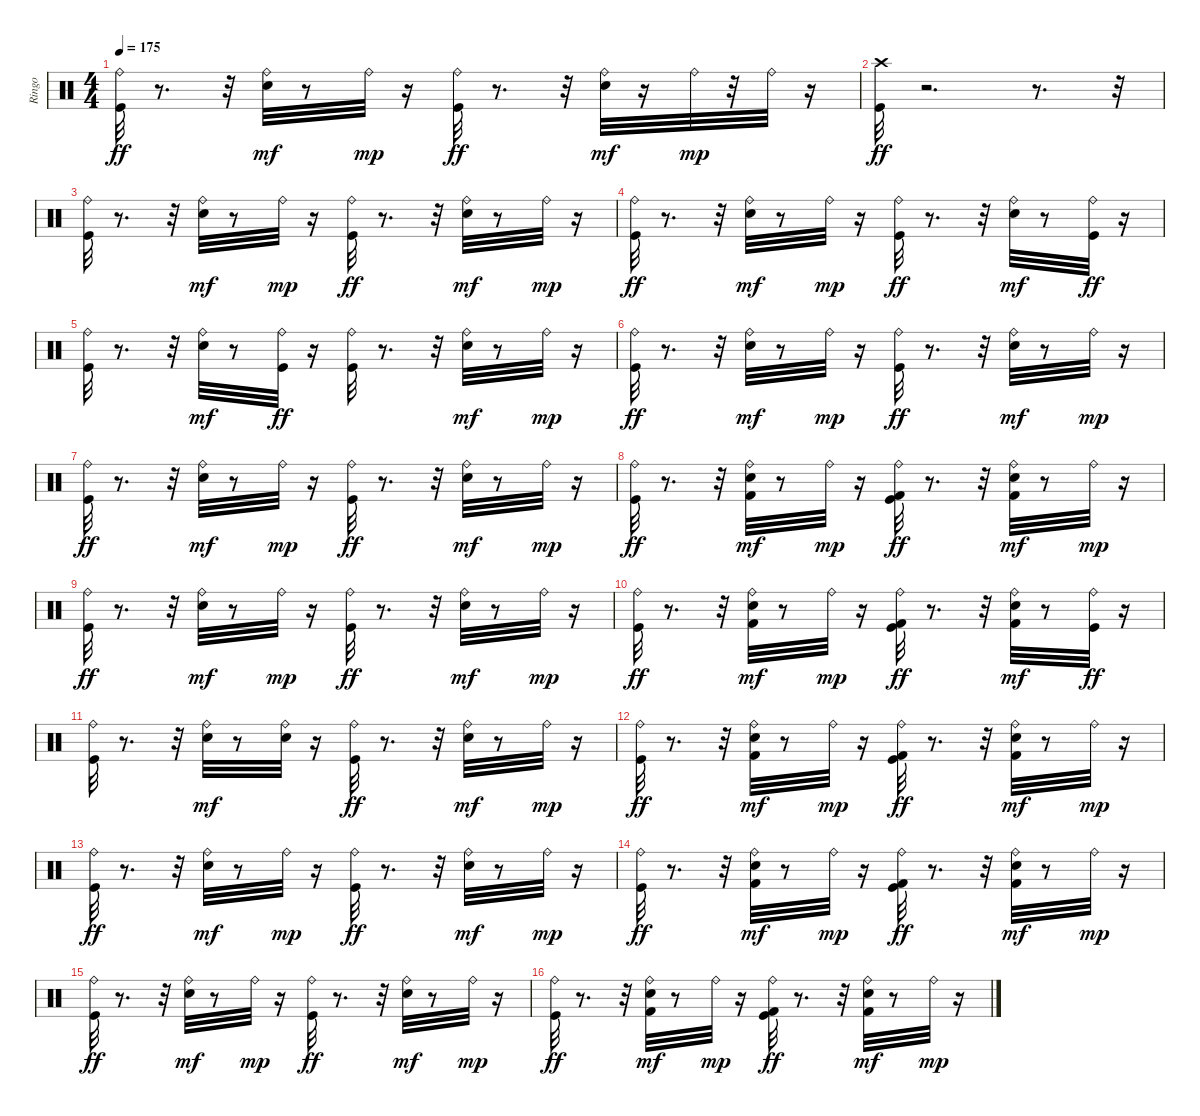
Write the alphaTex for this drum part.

\track ("Ringo" "Ringo") {instrument percussion}
\staff {score}
\articulation defaults
\ts (4 4)
\tempo 175
\clef neutral
\ks c
("Ride (bell)" "Kick (hit)").32{dy ff} r.8{d} r.32 ("Ride (bell)" "Snare (hit) 2").32{dy mf} r.8 "Ride (bell)".32{dy mp} r.16 ("Ride (bell)" "Kick (hit)").32{dy ff} r.8{d} r.32 ("Ride (bell)" "Snare (hit) 2").32{dy mf} r.16 "Ride (bell)".32{dy mp} r.32 "Ride (bell)".32 r.16 |
("Kick (hit)" "Crash high (hit)").32{dy ff} r.2{d} r.8{d} r.32 |
("Ride (bell)" "Kick (hit)").32 r.8{d} r.32 ("Ride (bell)" "Snare (hit) 2").32{dy mf} r.8 "Ride (bell)".32{dy mp} r.16 ("Ride (bell)" "Kick (hit)").32{dy ff} r.8{d} r.32 ("Ride (bell)" "Snare (hit) 2").32{dy mf} r.8 "Ride (bell)".32{dy mp} r.16 |
("Ride (bell)" "Kick (hit)").32{dy ff} r.8{d} r.32 ("Ride (bell)" "Snare (hit) 2").32{dy mf} r.8 "Ride (bell)".32{dy mp} r.16 ("Ride (bell)" "Kick (hit)").32{dy ff} r.8{d} r.32 ("Ride (bell)" "Snare (hit) 2").32{dy mf} r.8 ("Ride (bell)" "Kick (hit)").32{dy ff} r.16 |
("Ride (bell)" "Kick (hit)").32 r.8{d} r.32 ("Ride (bell)" "Snare (hit) 2").32{dy mf} r.8 ("Ride (bell)" "Kick (hit)").32{dy ff} r.16 ("Ride (bell)" "Kick (hit)").32 r.8{d} r.32 ("Ride (bell)" "Snare (hit) 2").32{dy mf} r.8 "Ride (bell)".32{dy mp} r.16 |
("Ride (bell)" "Kick (hit)").32{dy ff} r.8{d} r.32 ("Ride (bell)" "Snare (hit) 2").32{dy mf} r.8 "Ride (bell)".32{dy mp} r.16 ("Ride (bell)" "Kick (hit)").32{dy ff} r.8{d} r.32 ("Ride (bell)" "Snare (hit) 2").32{dy mf} r.8 "Ride (bell)".32{dy mp} r.16 |
("Ride (bell)" "Kick (hit)").32{dy ff} r.8{d} r.32 ("Ride (bell)" "Snare (hit) 2").32{dy mf} r.8 "Ride (bell)".32{dy mp} r.16 ("Ride (bell)" "Kick (hit)").32{dy ff} r.8{d} r.32 ("Ride (bell)" "Snare (hit) 2").32{dy mf} r.8 "Ride (bell)".32{dy mp} r.16 |
("Ride (bell)" "Kick (hit)").32{dy ff} r.8{d} r.32 ("Ride (bell)" "Snare (hit) 2" "Kick (hit) 2").32{dy mf} r.8 "Ride (bell)".32{dy mp} r.16 ("Ride (bell)" "Kick (hit)" "Kick (hit) 2").32{dy ff} r.8{d} r.32 ("Ride (bell)" "Snare (hit) 2" "Kick (hit) 2").32{dy mf} r.8 "Ride (bell)".32{dy mp} r.16 |
("Ride (bell)" "Kick (hit)").32{dy ff} r.8{d} r.32 ("Ride (bell)" "Snare (hit) 2").32{dy mf} r.8 "Ride (bell)".32{dy mp} r.16 ("Ride (bell)" "Kick (hit)").32{dy ff} r.8{d} r.32 ("Ride (bell)" "Snare (hit) 2").32{dy mf} r.8 "Ride (bell)".32{dy mp} r.16 |
("Ride (bell)" "Kick (hit)").32{dy ff} r.8{d} r.32 ("Ride (bell)" "Snare (hit) 2" "Kick (hit) 2").32{dy mf} r.8 "Ride (bell)".32{dy mp} r.16 ("Ride (bell)" "Kick (hit)" "Kick (hit) 2").32{dy ff} r.8{d} r.32 ("Ride (bell)" "Snare (hit) 2" "Kick (hit) 2").32{dy mf} r.8 ("Ride (bell)" "Kick (hit)").32{dy ff} r.16 |
("Ride (bell)" "Kick (hit)").32 r.8{d} r.32 ("Ride (bell)" "Snare (hit) 2").32{dy mf} r.8 ("Ride (bell)" "Snare (hit) 2").32 r.16 ("Ride (bell)" "Kick (hit)").32{dy ff} r.8{d} r.32 ("Ride (bell)" "Snare (hit) 2").32{dy mf} r.8 "Ride (bell)".32{dy mp} r.16 |
("Ride (bell)" "Kick (hit)").32{dy ff} r.8{d} r.32 ("Ride (bell)" "Snare (hit) 2" "Kick (hit) 2").32{dy mf} r.8 "Ride (bell)".32{dy mp} r.16 ("Ride (bell)" "Kick (hit)" "Kick (hit) 2").32{dy ff} r.8{d} r.32 ("Ride (bell)" "Snare (hit) 2" "Kick (hit) 2").32{dy mf} r.8 "Ride (bell)".32{dy mp} r.16 |
("Ride (bell)" "Kick (hit)").32{dy ff} r.8{d} r.32 ("Ride (bell)" "Snare (hit) 2").32{dy mf} r.8 "Ride (bell)".32{dy mp} r.16 ("Ride (bell)" "Kick (hit)").32{dy ff} r.8{d} r.32 ("Ride (bell)" "Snare (hit) 2").32{dy mf} r.8 "Ride (bell)".32{dy mp} r.16 |
("Ride (bell)" "Kick (hit)").32{dy ff} r.8{d} r.32 ("Ride (bell)" "Snare (hit) 2" "Kick (hit) 2").32{dy mf} r.8 "Ride (bell)".32{dy mp} r.16 ("Ride (bell)" "Kick (hit)" "Kick (hit) 2").32{dy ff} r.8{d} r.32 ("Ride (bell)" "Snare (hit) 2" "Kick (hit) 2").32{dy mf} r.8 "Ride (bell)".32{dy mp} r.16 |
("Ride (bell)" "Kick (hit)").32{dy ff} r.8{d} r.32 ("Ride (bell)" "Snare (hit) 2").32{dy mf} r.8 "Ride (bell)".32{dy mp} r.16 ("Ride (bell)" "Kick (hit)").32{dy ff} r.8{d} r.32 ("Ride (bell)" "Snare (hit) 2").32{dy mf} r.8 "Ride (bell)".32{dy mp} r.16 |
("Ride (bell)" "Kick (hit)").32{dy ff} r.8{d} r.32 ("Ride (bell)" "Snare (hit) 2" "Kick (hit) 2").32{dy mf} r.8 "Ride (bell)".32{dy mp} r.16 ("Ride (bell)" "Kick (hit)" "Kick (hit) 2").32{dy ff} r.8{d} r.32 ("Ride (bell)" "Snare (hit) 2" "Kick (hit) 2").32{dy mf} r.8 "Ride (bell)".32{dy mp} r.16
